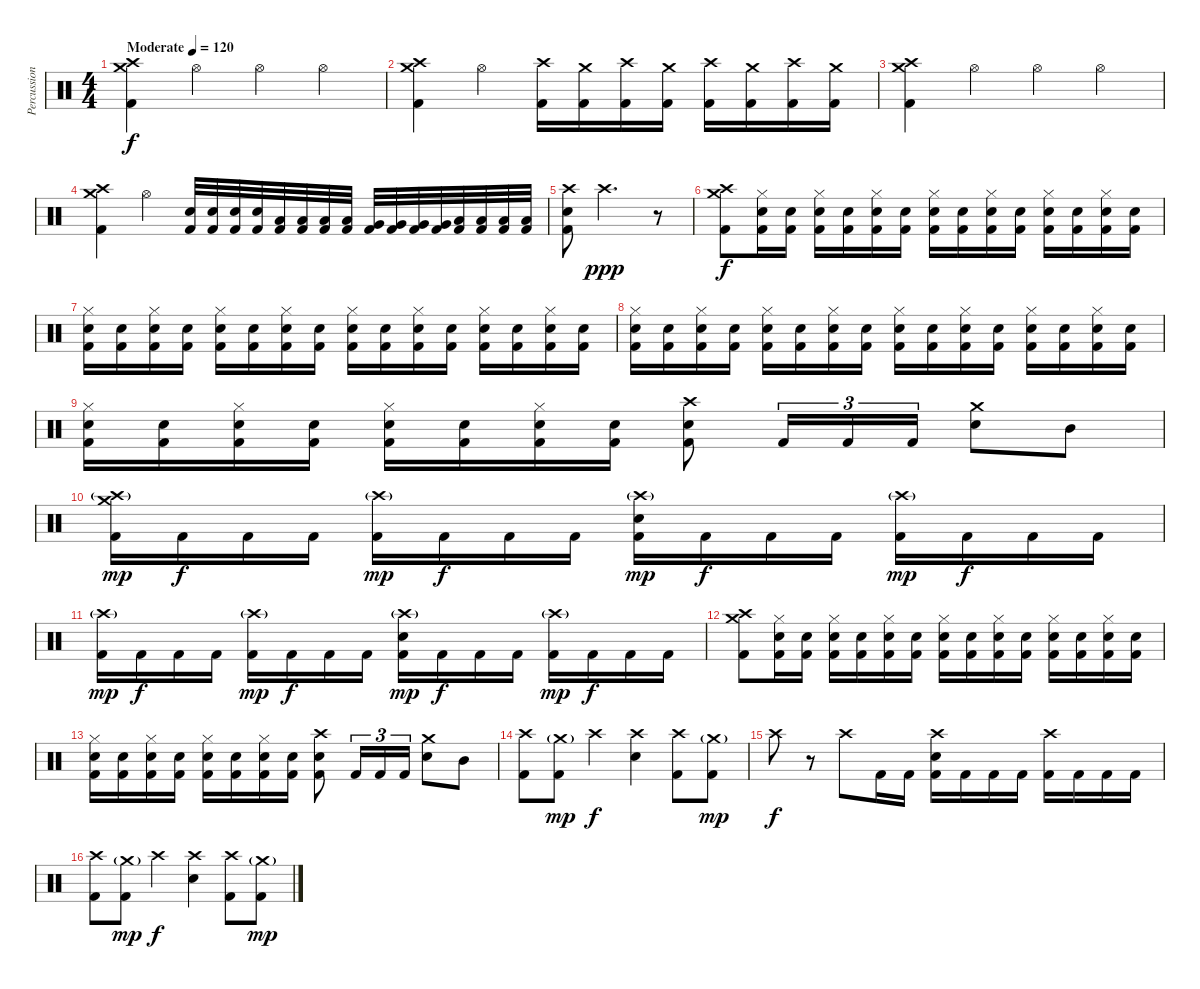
\track ("Percussion" "Percussion") {instrument percussion}
\staff {score}
\articulation defaults
\ts (4 4)
\tempo (120 "Moderate")
\clef neutral
\ks c
("Crash medium (hit)" "Crash high (hit)" "Kick (hit) 2").4{dy f} "Hi-Hat (open)".4 "Hi-Hat (open)".4 "Hi-Hat (open)".4 |
("Crash medium (hit)" "Crash high (hit)" "Kick (hit) 2").4 "Hi-Hat (open)".4 ("Crash high (hit)" "Kick (hit) 2").16 ("Crash medium (hit)" "Kick (hit) 2").16 ("Crash high (hit)" "Kick (hit) 2").16 ("Crash medium (hit)" "Kick (hit) 2").16 ("Crash high (hit)" "Kick (hit) 2").16 ("Crash medium (hit)" "Kick (hit) 2").16 ("Crash high (hit)" "Kick (hit) 2").16 ("Crash medium (hit)" "Kick (hit) 2").16 |
("Crash medium (hit)" "Crash high (hit)" "Kick (hit) 2").4 "Hi-Hat (open)".4 "Hi-Hat (open)".4 "Hi-Hat (open)".4 |
("Crash medium (hit)" "Crash high (hit)" "Kick (hit) 2").4 "Hi-Hat (open)".4 ("Electric Snare (hit)" "Kick (hit) 2").32 ("Electric Snare (hit)" "Kick (hit) 2").32 ("Electric Snare (hit)" "Kick (hit) 2").32 ("Electric Snare (hit)" "Kick (hit) 2").32 ("Low Tom (hit)" "Kick (hit) 2").32 ("Low Tom (hit)" "Kick (hit) 2").32 ("Low Tom (hit)" "Kick (hit) 2").32 ("Low Tom (hit)" "Kick (hit) 2").32 ("Very Low Tom (hit)" "Kick (hit) 2").32 ("Very Low Tom (hit)" "Kick (hit) 2").32 ("Very Low Tom (hit)" "Kick (hit) 2").32 ("Very Low Tom (hit)" "Kick (hit) 2").32 ("Low Floor Tom (hit)" "Kick (hit) 2").32 ("Low Floor Tom (hit)" "Kick (hit) 2").32 ("Low Floor Tom (hit)" "Kick (hit) 2").32 ("Low Floor Tom (hit)" "Kick (hit) 2").32 |
("Crash high (hit)" "Electric Snare (hit)" "Kick (hit) 2").8 "Crash high (hit)".2{d dy ppp} r.8 |
("Crash high (hit)" "Crash medium (hit)" "Kick (hit) 2").8{dy f} ("Hi-Hat (closed)" "Electric Snare (hit)" "Kick (hit) 2").16 ("Electric Snare (hit)" "Kick (hit) 2").16 ("Hi-Hat (closed)" "Electric Snare (hit)" "Kick (hit) 2").16 ("Electric Snare (hit)" "Kick (hit) 2").16 ("Hi-Hat (closed)" "Electric Snare (hit)" "Kick (hit) 2").16 ("Electric Snare (hit)" "Kick (hit) 2").16 ("Hi-Hat (closed)" "Electric Snare (hit)" "Kick (hit) 2").16 ("Electric Snare (hit)" "Kick (hit) 2").16 ("Hi-Hat (closed)" "Electric Snare (hit)" "Kick (hit) 2").16 ("Electric Snare (hit)" "Kick (hit) 2").16 ("Hi-Hat (closed)" "Electric Snare (hit)" "Kick (hit) 2").16 ("Electric Snare (hit)" "Kick (hit) 2").16 ("Hi-Hat (closed)" "Electric Snare (hit)" "Kick (hit) 2").16 ("Electric Snare (hit)" "Kick (hit) 2").16 |
("Hi-Hat (closed)" "Electric Snare (hit)" "Kick (hit) 2").16 ("Electric Snare (hit)" "Kick (hit) 2").16 ("Hi-Hat (closed)" "Electric Snare (hit)" "Kick (hit) 2").16 ("Electric Snare (hit)" "Kick (hit) 2").16 ("Hi-Hat (closed)" "Electric Snare (hit)" "Kick (hit) 2").16 ("Electric Snare (hit)" "Kick (hit) 2").16 ("Hi-Hat (closed)" "Electric Snare (hit)" "Kick (hit) 2").16 ("Electric Snare (hit)" "Kick (hit) 2").16 ("Hi-Hat (closed)" "Electric Snare (hit)" "Kick (hit) 2").16 ("Electric Snare (hit)" "Kick (hit) 2").16 ("Hi-Hat (closed)" "Electric Snare (hit)" "Kick (hit) 2").16 ("Electric Snare (hit)" "Kick (hit) 2").16 ("Hi-Hat (closed)" "Electric Snare (hit)" "Kick (hit) 2").16 ("Electric Snare (hit)" "Kick (hit) 2").16 ("Hi-Hat (closed)" "Electric Snare (hit)" "Kick (hit) 2").16 ("Electric Snare (hit)" "Kick (hit) 2").16 |
("Hi-Hat (closed)" "Electric Snare (hit)" "Kick (hit) 2").16 ("Electric Snare (hit)" "Kick (hit) 2").16 ("Hi-Hat (closed)" "Electric Snare (hit)" "Kick (hit) 2").16 ("Electric Snare (hit)" "Kick (hit) 2").16 ("Hi-Hat (closed)" "Electric Snare (hit)" "Kick (hit) 2").16 ("Electric Snare (hit)" "Kick (hit) 2").16 ("Hi-Hat (closed)" "Electric Snare (hit)" "Kick (hit) 2").16 ("Electric Snare (hit)" "Kick (hit) 2").16 ("Hi-Hat (closed)" "Electric Snare (hit)" "Kick (hit) 2").16 ("Electric Snare (hit)" "Kick (hit) 2").16 ("Hi-Hat (closed)" "Electric Snare (hit)" "Kick (hit) 2").16 ("Electric Snare (hit)" "Kick (hit) 2").16 ("Hi-Hat (closed)" "Electric Snare (hit)" "Kick (hit) 2").16 ("Electric Snare (hit)" "Kick (hit) 2").16 ("Hi-Hat (closed)" "Electric Snare (hit)" "Kick (hit) 2").16 ("Electric Snare (hit)" "Kick (hit) 2").16 |
("Hi-Hat (closed)" "Electric Snare (hit)" "Kick (hit) 2").16 ("Electric Snare (hit)" "Kick (hit) 2").16 ("Hi-Hat (closed)" "Electric Snare (hit)" "Kick (hit) 2").16 ("Electric Snare (hit)" "Kick (hit) 2").16 ("Hi-Hat (closed)" "Electric Snare (hit)" "Kick (hit) 2").16 ("Electric Snare (hit)" "Kick (hit) 2").16 ("Hi-Hat (closed)" "Electric Snare (hit)" "Kick (hit) 2").16 ("Electric Snare (hit)" "Kick (hit) 2").16 ("Crash high (hit)" "Electric Snare (hit)" "Kick (hit) 2").8 "Kick (hit) 2".16{tu (3 2)} "Kick (hit) 2".16{tu (3 2)} "Kick (hit) 2".16{tu (3 2)} ("Crash medium (hit)" "Electric Snare (hit)").8 "Mid Tom (hit)".8 |
("Crash medium (hit)" "Crash high (hit)"{g} "Kick (hit) 2").16{dy mp} "Kick (hit) 2".16{dy f} "Kick (hit) 2".16 "Kick (hit) 2".16 ("Crash high (hit)"{g} "Kick (hit) 2").16{dy mp} "Kick (hit) 2".16{dy f} "Kick (hit) 2".16 "Kick (hit) 2".16 ("Crash high (hit)"{g} "Electric Snare (hit)" "Kick (hit) 2").16{dy mp} "Kick (hit) 2".16{dy f} "Kick (hit) 2".16 "Kick (hit) 2".16 ("Crash high (hit)"{g} "Kick (hit) 2").16{dy mp} "Kick (hit) 2".16{dy f} "Kick (hit) 2".16 "Kick (hit) 2".16 |
("Crash high (hit)"{g} "Kick (hit) 2").16{dy mp} "Kick (hit) 2".16{dy f} "Kick (hit) 2".16 "Kick (hit) 2".16 ("Crash high (hit)"{g} "Kick (hit) 2").16{dy mp} "Kick (hit) 2".16{dy f} "Kick (hit) 2".16 "Kick (hit) 2".16 ("Crash high (hit)"{g} "Electric Snare (hit)" "Kick (hit) 2").16{dy mp} "Kick (hit) 2".16{dy f} "Kick (hit) 2".16 "Kick (hit) 2".16 ("Crash high (hit)"{g} "Kick (hit) 2").16{dy mp} "Kick (hit) 2".16{dy f} "Kick (hit) 2".16 "Kick (hit) 2".16 |
("Crash high (hit)" "Crash medium (hit)" "Kick (hit) 2").8 ("Hi-Hat (closed)" "Electric Snare (hit)" "Kick (hit) 2").16 ("Electric Snare (hit)" "Kick (hit) 2").16 ("Hi-Hat (closed)" "Electric Snare (hit)" "Kick (hit) 2").16 ("Electric Snare (hit)" "Kick (hit) 2").16 ("Hi-Hat (closed)" "Electric Snare (hit)" "Kick (hit) 2").16 ("Electric Snare (hit)" "Kick (hit) 2").16 ("Hi-Hat (closed)" "Electric Snare (hit)" "Kick (hit) 2").16 ("Electric Snare (hit)" "Kick (hit) 2").16 ("Hi-Hat (closed)" "Electric Snare (hit)" "Kick (hit) 2").16 ("Electric Snare (hit)" "Kick (hit) 2").16 ("Hi-Hat (closed)" "Electric Snare (hit)" "Kick (hit) 2").16 ("Electric Snare (hit)" "Kick (hit) 2").16 ("Hi-Hat (closed)" "Electric Snare (hit)" "Kick (hit) 2").16 ("Electric Snare (hit)" "Kick (hit) 2").16 |
("Hi-Hat (closed)" "Electric Snare (hit)" "Kick (hit) 2").16 ("Electric Snare (hit)" "Kick (hit) 2").16 ("Hi-Hat (closed)" "Electric Snare (hit)" "Kick (hit) 2").16 ("Electric Snare (hit)" "Kick (hit) 2").16 ("Hi-Hat (closed)" "Electric Snare (hit)" "Kick (hit) 2").16 ("Electric Snare (hit)" "Kick (hit) 2").16 ("Hi-Hat (closed)" "Electric Snare (hit)" "Kick (hit) 2").16 ("Electric Snare (hit)" "Kick (hit) 2").16 ("Crash high (hit)" "Electric Snare (hit)" "Kick (hit) 2").8 "Kick (hit) 2".16{tu (3 2)} "Kick (hit) 2".16{tu (3 2)} "Kick (hit) 2".16{tu (3 2)} ("Crash medium (hit)" "Electric Snare (hit)").8 "Mid Tom (hit)".8 |
("Crash high (hit)" "Kick (hit) 2").8 ("Crash medium (hit)"{g} "Kick (hit) 2").8{dy mp} "Crash high (hit)".4{dy f} ("Crash high (hit)" "Electric Snare (hit)").4 ("Crash high (hit)" "Kick (hit) 2").8 ("Crash medium (hit)"{g} "Kick (hit) 2").8{dy mp} |
"Crash high (hit)".8{dy f} r.8 "Crash high (hit)".8 "Kick (hit) 2".16 "Kick (hit) 2".16 ("Crash high (hit)" "Electric Snare (hit)" "Kick (hit) 2").16 "Kick (hit) 2".16 "Kick (hit) 2".16 "Kick (hit) 2".16 ("Crash high (hit)" "Kick (hit) 2").16 "Kick (hit) 2".16 "Kick (hit) 2".16 "Kick (hit) 2".16 |
("Crash high (hit)" "Kick (hit) 2").8 ("Crash medium (hit)"{g} "Kick (hit) 2").8{dy mp} "Crash high (hit)".4{dy f} ("Crash high (hit)" "Electric Snare (hit)").4 ("Crash high (hit)" "Kick (hit) 2").8 ("Crash medium (hit)"{g} "Kick (hit) 2").8{dy mp}
